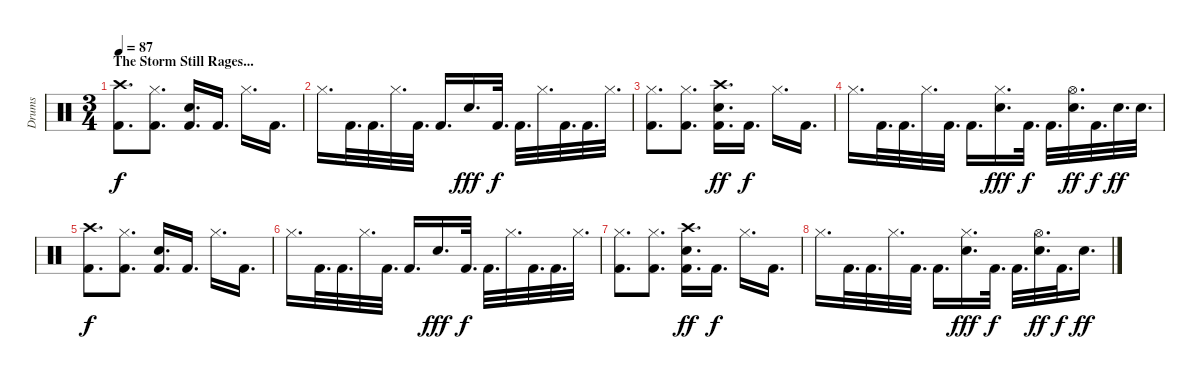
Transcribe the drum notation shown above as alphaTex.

\track ("Drums" "Drums") {instrument percussion}
\staff {score}
\articulation defaults
\ts (3 4)
\section ("" "The Storm Still Rages...")
\tempo 87
\clef neutral
\ks c
("Crash high (hit)" "Kick (hit) 2").8{d dy f} ("Hi-Hat (closed)" "Kick (hit) 2").8{d} ("Electric Snare (hit)" "Kick (hit) 2").16{d} "Kick (hit) 2".16{d} "Hi-Hat (closed)".16{d} "Kick (hit) 2".16{d} |
"Hi-Hat (closed)".16{d} "Kick (hit) 2".32{d} "Kick (hit) 2".32{d} "Hi-Hat (closed)".32{d} "Kick (hit) 2".32{d} "Kick (hit) 2".16{d} "Electric Snare (hit)".16{d dy fff} "Kick (hit) 2".32{d dy f} "Kick (hit) 2".32{d} "Hi-Hat (closed)".32{d} "Kick (hit) 2".32{d} "Kick (hit) 2".32{d} "Hi-Hat (closed)".32{d} |
("Hi-Hat (closed)" "Kick (hit) 2").8{d} ("Hi-Hat (closed)" "Kick (hit) 2").8{d} ("Crash high (hit)" "Electric Snare (hit)" "Kick (hit) 2").16{d dy ff} "Kick (hit) 2".16{d dy f} "Hi-Hat (closed)".16{d} "Kick (hit) 2".16{d} |
"Hi-Hat (closed)".16{d} "Kick (hit) 2".32{d} "Kick (hit) 2".32{d} "Hi-Hat (closed)".32{d} "Kick (hit) 2".32{d} "Kick (hit) 2".16{d} ("Hi-Hat (closed)" "Electric Snare (hit)").16{d dy fff} "Kick (hit) 2".32{d dy f} "Kick (hit) 2".32{d} ("Hi-Hat (open)" "Electric Snare (hit)").32{d dy ff} "Kick (hit) 2".32{d dy f} "Electric Snare (hit)".32{d dy ff} "Electric Snare (hit)".32{d} |
("Crash high (hit)" "Kick (hit) 2").8{d dy f} ("Hi-Hat (closed)" "Kick (hit) 2").8{d} ("Electric Snare (hit)" "Kick (hit) 2").16{d} "Kick (hit) 2".16{d} "Hi-Hat (closed)".16{d} "Kick (hit) 2".16{d} |
"Hi-Hat (closed)".16{d} "Kick (hit) 2".32{d} "Kick (hit) 2".32{d} "Hi-Hat (closed)".32{d} "Kick (hit) 2".32{d} "Kick (hit) 2".16{d} "Electric Snare (hit)".16{d dy fff} "Kick (hit) 2".32{d dy f} "Kick (hit) 2".32{d} "Hi-Hat (closed)".32{d} "Kick (hit) 2".32{d} "Kick (hit) 2".32{d} "Hi-Hat (closed)".32{d} |
("Hi-Hat (closed)" "Kick (hit) 2").8{d} ("Hi-Hat (closed)" "Kick (hit) 2").8{d} ("Crash high (hit)" "Electric Snare (hit)" "Kick (hit) 2").16{d dy ff} "Kick (hit) 2".16{d dy f} "Hi-Hat (closed)".16{d} "Kick (hit) 2".16{d} |
"Hi-Hat (closed)".16{d} "Kick (hit) 2".32{d} "Kick (hit) 2".32{d} "Hi-Hat (closed)".32{d} "Kick (hit) 2".32{d} "Kick (hit) 2".16{d} ("Hi-Hat (closed)" "Electric Snare (hit)").16{d dy fff} "Kick (hit) 2".32{d dy f} "Kick (hit) 2".32{d} ("Hi-Hat (open)" "Electric Snare (hit)").32{d dy ff} "Kick (hit) 2".32{d dy f} "Electric Snare (hit)".16{d dy ff}
